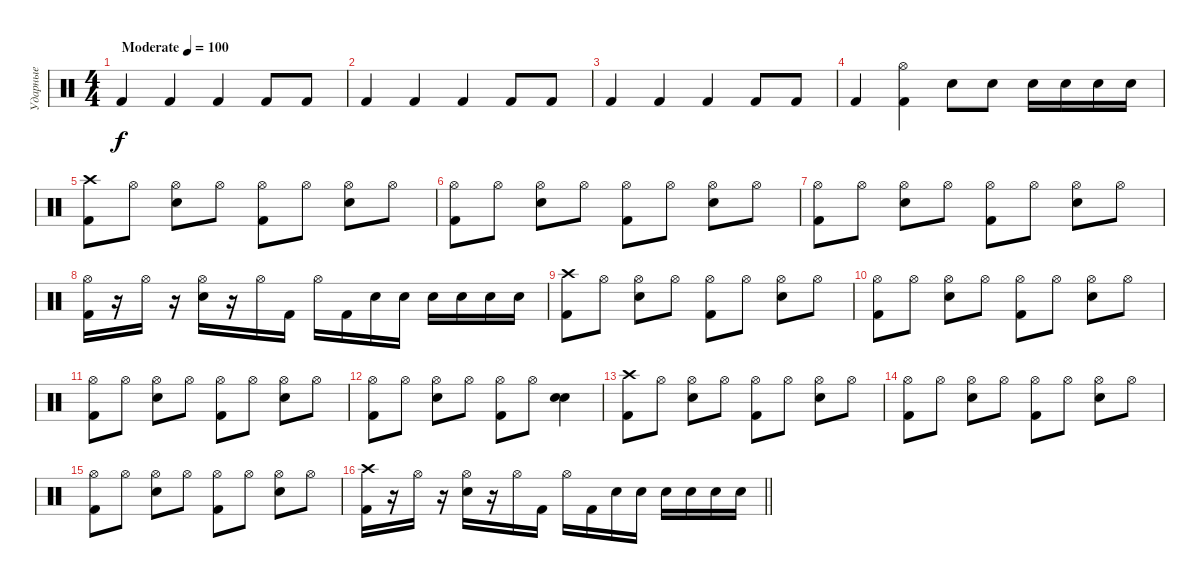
\track ("Ударные" "Ударные") {instrument percussion}
\staff {score}
\articulation defaults
\ts (4 4)
\tempo (100 "Moderate")
\clef neutral
\ks c "Kick (hit) 2".4{dy f} "Kick (hit) 2".4 "Kick (hit) 2".4 "Kick (hit) 2".8 "Kick (hit) 2".8
|
"Kick (hit) 2".4 "Kick (hit) 2".4 "Kick (hit) 2".4 "Kick (hit) 2".8 "Kick (hit) 2".8 |
"Kick (hit) 2".4 "Kick (hit) 2".4 "Kick (hit) 2".4 "Kick (hit) 2".8 "Kick (hit) 2".8 |
"Kick (hit) 2".4 ("Hi-Hat (open)" "Kick (hit) 2").4 "Electric Snare (hit)".8 "Electric Snare (hit)".8 "Electric Snare (hit)".16 "Electric Snare (hit)".16 "Electric Snare (hit)".16 "Electric Snare (hit)".16 |
("Crash high (hit)" "Kick (hit) 2").8 "Hi-Hat (open)".8 ("Hi-Hat (open)" "Electric Snare (hit)").8 "Hi-Hat (open)".8 ("Hi-Hat (open)" "Kick (hit) 2").8 "Hi-Hat (open)".8 ("Hi-Hat (open)" "Electric Snare (hit)").8 "Hi-Hat (open)".8 |
("Hi-Hat (open)" "Kick (hit) 2").8 "Hi-Hat (open)".8 ("Hi-Hat (open)" "Electric Snare (hit)").8 "Hi-Hat (open)".8 ("Hi-Hat (open)" "Kick (hit) 2").8 "Hi-Hat (open)".8 ("Hi-Hat (open)" "Electric Snare (hit)").8 "Hi-Hat (open)".8 |
("Hi-Hat (open)" "Kick (hit) 2").8 "Hi-Hat (open)".8 ("Hi-Hat (open)" "Electric Snare (hit)").8 "Hi-Hat (open)".8 ("Hi-Hat (open)" "Kick (hit) 2").8 "Hi-Hat (open)".8 ("Hi-Hat (open)" "Electric Snare (hit)").8 "Hi-Hat (open)".8 |
("Hi-Hat (open)" "Kick (hit) 2").16 r.16 "Hi-Hat (open)".16 r.16 ("Hi-Hat (open)" "Electric Snare (hit)").16 r.16 "Hi-Hat (open)".16 "Kick (hit) 2".16 "Hi-Hat (open)".16 "Kick (hit) 2".16 "Electric Snare (hit)".16 "Electric Snare (hit)".16 "Electric Snare (hit)".16 "Electric Snare (hit)".16 "Electric Snare (hit)".16 "Electric Snare (hit)".16 |
("Crash high (hit)" "Kick (hit) 2").8 "Hi-Hat (open)".8 ("Hi-Hat (open)" "Electric Snare (hit)").8 "Hi-Hat (open)".8 ("Hi-Hat (open)" "Kick (hit) 2").8 "Hi-Hat (open)".8 ("Hi-Hat (open)" "Electric Snare (hit)").8 "Hi-Hat (open)".8 |
("Hi-Hat (open)" "Kick (hit) 2").8 "Hi-Hat (open)".8 ("Hi-Hat (open)" "Electric Snare (hit)").8 "Hi-Hat (open)".8 ("Hi-Hat (open)" "Kick (hit) 2").8 "Hi-Hat (open)".8 ("Hi-Hat (open)" "Electric Snare (hit)").8 "Hi-Hat (open)".8 |
("Hi-Hat (open)" "Kick (hit) 2").8 "Hi-Hat (open)".8 ("Hi-Hat (open)" "Electric Snare (hit)").8 "Hi-Hat (open)".8 ("Hi-Hat (open)" "Kick (hit) 2").8 "Hi-Hat (open)".8 ("Hi-Hat (open)" "Electric Snare (hit)").8 "Hi-Hat (open)".8 |
("Hi-Hat (open)" "Kick (hit) 2").8 "Hi-Hat (open)".8 ("Hi-Hat (open)" "Electric Snare (hit)").8 "Hi-Hat (open)".8 ("Hi-Hat (open)" "Kick (hit) 2").8 "Hi-Hat (open)".8 ("Electric Snare (hit)" "Electric Snare (hit)").4 |
("Crash high (hit)" "Kick (hit) 2").8 "Hi-Hat (open)".8 ("Hi-Hat (open)" "Electric Snare (hit)").8 "Hi-Hat (open)".8 ("Hi-Hat (open)" "Kick (hit) 2").8 "Hi-Hat (open)".8 ("Hi-Hat (open)" "Electric Snare (hit)").8 "Hi-Hat (open)".8 |
("Hi-Hat (open)" "Kick (hit) 2").8 "Hi-Hat (open)".8 ("Hi-Hat (open)" "Electric Snare (hit)").8 "Hi-Hat (open)".8 ("Hi-Hat (open)" "Kick (hit) 2").8 "Hi-Hat (open)".8 ("Hi-Hat (open)" "Electric Snare (hit)").8 "Hi-Hat (open)".8 |
("Hi-Hat (open)" "Kick (hit) 2").8 "Hi-Hat (open)".8 ("Hi-Hat (open)" "Electric Snare (hit)").8 "Hi-Hat (open)".8 ("Hi-Hat (open)" "Kick (hit) 2").8 "Hi-Hat (open)".8 ("Hi-Hat (open)" "Electric Snare (hit)").8 "Hi-Hat (open)".8 |
\barLineRight lightlight
("Crash high (hit)" "Kick (hit) 2").16 r.16 "Hi-Hat (open)".16 r.16 ("Hi-Hat (open)" "Electric Snare (hit)").16 r.16 "Hi-Hat (open)".16 "Kick (hit) 2".16 "Hi-Hat (open)".16 "Kick (hit) 2".16 "Electric Snare (hit)".16 "Electric Snare (hit)".16 "Electric Snare (hit)".16 "Electric Snare (hit)".16 "Electric Snare (hit)".16 "Electric Snare (hit)".16
